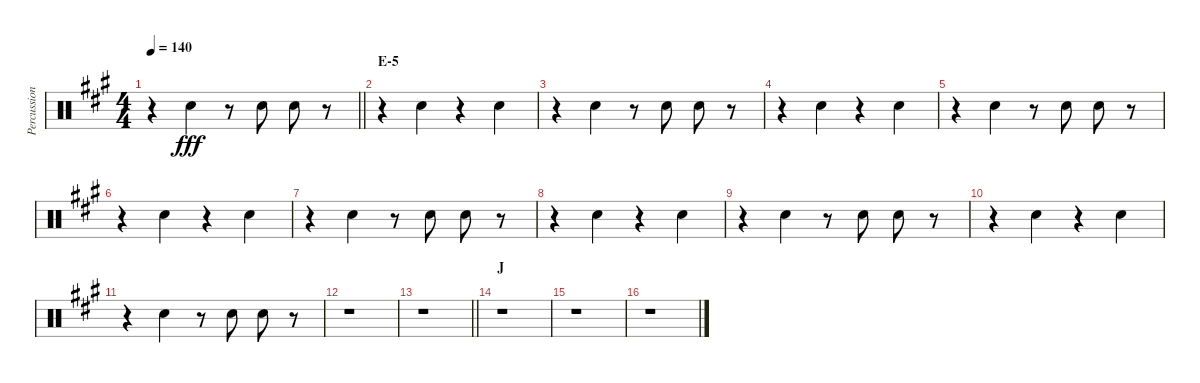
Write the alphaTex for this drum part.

\track ("Percussion" "Percussion") {instrument percussion}
\staff {score}
\articulation defaults
\ts (4 4)
\tempo 140
\clef neutral
\barLineRight lightlight
\ks a
r.4{dy fff} "Hand Clap (hit)".4 r.8 "Hand Clap (hit)".8 "Hand Clap (hit)".8 r.8 |
\section ("" "E-5")
r.4 "Hand Clap (hit)".4 r.4 "Hand Clap (hit)".4 |
r.4 "Hand Clap (hit)".4 r.8 "Hand Clap (hit)".8 "Hand Clap (hit)".8 r.8 |
r.4 "Hand Clap (hit)".4 r.4 "Hand Clap (hit)".4 |
r.4 "Hand Clap (hit)".4 r.8 "Hand Clap (hit)".8 "Hand Clap (hit)".8 r.8 |
r.4 "Hand Clap (hit)".4 r.4 "Hand Clap (hit)".4 |
r.4 "Hand Clap (hit)".4 r.8 "Hand Clap (hit)".8 "Hand Clap (hit)".8 r.8 |
r.4 "Hand Clap (hit)".4 r.4 "Hand Clap (hit)".4 |
r.4 "Hand Clap (hit)".4 r.8 "Hand Clap (hit)".8 "Hand Clap (hit)".8 r.8 |
r.4 "Hand Clap (hit)".4 r.4 "Hand Clap (hit)".4 |
r.4 "Hand Clap (hit)".4 r.8 "Hand Clap (hit)".8 "Hand Clap (hit)".8 r.8 |
r.1 |
\barLineRight lightlight
r.1 |
\section ("" "J")
r.1 |
r.1 |
r.1
